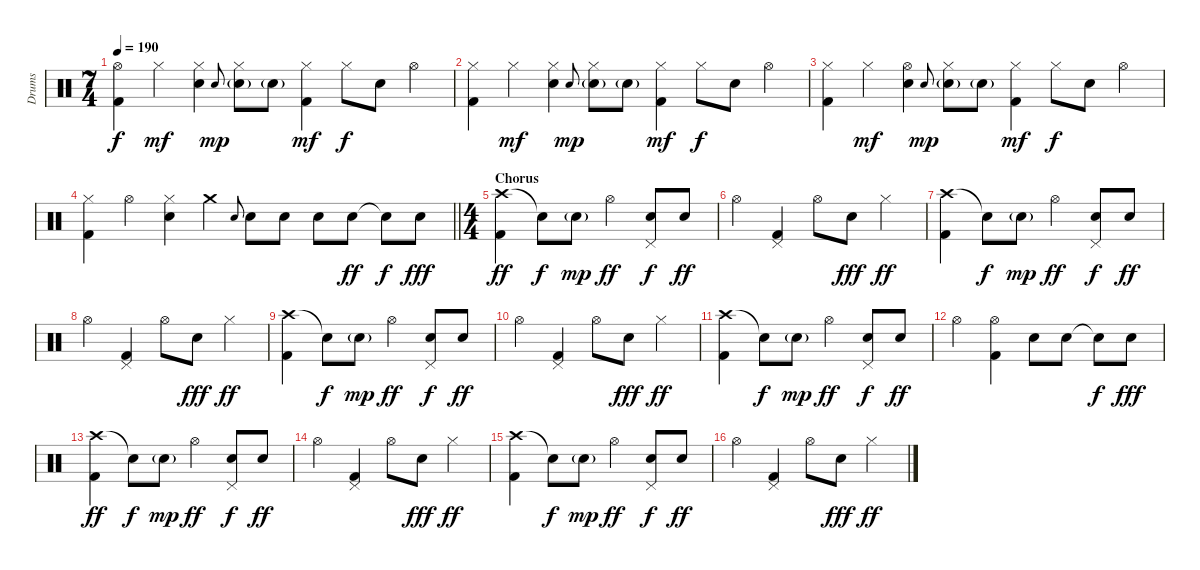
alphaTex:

\track ("Drums" "Drums") {instrument percussion}
\staff {score}
\articulation defaults
\ts (7 4)
\tempo 190
\clef neutral
\ks c
("Hi-Hat (open)" "Kick (hit) 2").4{dy f} "Hi-Hat (closed)".4{dy mf} ("Hi-Hat (closed)" "Electric Snare (hit)").4 "Electric Snare (hit)".8{gr onbeat dy mp} ("Hi-Hat (closed)" "Electric Snare (hit)"{g}).8 "Electric Snare (hit)"{g}.8 ("Hi-Hat (closed)" "Kick (hit) 2").4{dy mf} "Hi-Hat (closed)".8{dy f} "Electric Snare (hit)".8 "Hi-Hat (open)".4 |
("Hi-Hat (closed)" "Kick (hit) 2").4 "Hi-Hat (closed)".4{dy mf} ("Hi-Hat (closed)" "Electric Snare (hit)").4 "Electric Snare (hit)".8{gr onbeat dy mp} ("Hi-Hat (closed)" "Electric Snare (hit)"{g}).8 "Electric Snare (hit)"{g}.8 ("Hi-Hat (closed)" "Kick (hit) 2").4{dy mf} "Hi-Hat (closed)".8{dy f} "Electric Snare (hit)".8 "Hi-Hat (open)".4 |
("Hi-Hat (closed)" "Kick (hit) 2").4 "Hi-Hat (closed)".4{dy mf} ("Hi-Hat (open)" "Electric Snare (hit)").4 "Electric Snare (hit)".8{gr onbeat dy mp} ("Hi-Hat (closed)" "Electric Snare (hit)"{g}).8 "Electric Snare (hit)"{g}.8 ("Hi-Hat (closed)" "Kick (hit) 2").4{dy mf} "Hi-Hat (closed)".8{dy f} "Electric Snare (hit)".8 "Hi-Hat (open)".4 |
\barLineRight lightlight
("Hi-Hat (closed)" "Kick (hit) 2").4 "Hi-Hat (open)".4 ("Hi-Hat (closed)" "Electric Snare (hit)").4 "Crash medium (hit)".4 "Electric Snare (hit)".8{gr onbeat} "Electric Snare (hit)".8 "Electric Snare (hit)".8 "Electric Snare (hit)".8 "Electric Snare (hit)".8{dy ff} "Snare (hit)"{t}.8{dy f} "Electric Snare (hit)".8{dy fff} |
\ts (4 4)
\section ("" "Chorus")
("Crash high (hit)" "Kick (hit) 2").4{dy ff} "Snare (hit)"{t}.8{dy f} "Electric Snare (hit)"{g}.8{dy mp} "Hi-Hat (open)".4{dy ff} ("Pedal Hi-Hat (hit)" "Electric Snare (hit)").8{dy f} "Electric Snare (hit)".8{dy ff} |
"Hi-Hat (open)".4 ("Pedal Hi-Hat (hit)" "Kick (hit) 2").4 "Hi-Hat (open)".8 "Electric Snare (hit)".8{dy fff} "Hi-Hat (closed)".4{dy ff} |
("Crash high (hit)" "Kick (hit) 2").4 "Snare (hit)"{t}.8{dy f} "Electric Snare (hit)"{g}.8{dy mp} "Hi-Hat (open)".4{dy ff} ("Pedal Hi-Hat (hit)" "Electric Snare (hit)").8{dy f} "Electric Snare (hit)".8{dy ff} |
"Hi-Hat (open)".4 ("Pedal Hi-Hat (hit)" "Kick (hit) 2").4 "Hi-Hat (open)".8 "Electric Snare (hit)".8{dy fff} "Hi-Hat (closed)".4{dy ff} |
("Crash high (hit)" "Kick (hit) 2").4 "Snare (hit)"{t}.8{dy f} "Electric Snare (hit)"{g}.8{dy mp} "Hi-Hat (open)".4{dy ff} ("Pedal Hi-Hat (hit)" "Electric Snare (hit)").8{dy f} "Electric Snare (hit)".8{dy ff} |
"Hi-Hat (open)".4 ("Pedal Hi-Hat (hit)" "Kick (hit) 2").4 "Hi-Hat (open)".8 "Electric Snare (hit)".8{dy fff} "Hi-Hat (closed)".4{dy ff} |
("Crash high (hit)" "Kick (hit) 2").4 "Snare (hit)"{t}.8{dy f} "Electric Snare (hit)"{g}.8{dy mp} "Hi-Hat (open)".4{dy ff} ("Pedal Hi-Hat (hit)" "Electric Snare (hit)").8{dy f} "Electric Snare (hit)".8{dy ff} |
"Hi-Hat (open)".4 ("Hi-Hat (open)" "Kick (hit) 2").4 "Electric Snare (hit)".8 "Electric Snare (hit)".8 "Snare (hit)"{t}.8{dy f} "Electric Snare (hit)".8{dy fff} |
("Crash high (hit)" "Kick (hit) 2").4{dy ff} "Snare (hit)"{t}.8{dy f} "Electric Snare (hit)"{g}.8{dy mp} "Hi-Hat (open)".4{dy ff} ("Pedal Hi-Hat (hit)" "Electric Snare (hit)").8{dy f} "Electric Snare (hit)".8{dy ff} |
"Hi-Hat (open)".4 ("Pedal Hi-Hat (hit)" "Kick (hit) 2").4 "Hi-Hat (open)".8 "Electric Snare (hit)".8{dy fff} "Hi-Hat (closed)".4{dy ff} |
("Crash high (hit)" "Kick (hit) 2").4 "Snare (hit)"{t}.8{dy f} "Electric Snare (hit)"{g}.8{dy mp} "Hi-Hat (open)".4{dy ff} ("Pedal Hi-Hat (hit)" "Electric Snare (hit)").8{dy f} "Electric Snare (hit)".8{dy ff} |
"Hi-Hat (open)".4 ("Pedal Hi-Hat (hit)" "Kick (hit) 2").4 "Hi-Hat (open)".8 "Electric Snare (hit)".8{dy fff} "Hi-Hat (closed)".4{dy ff}
